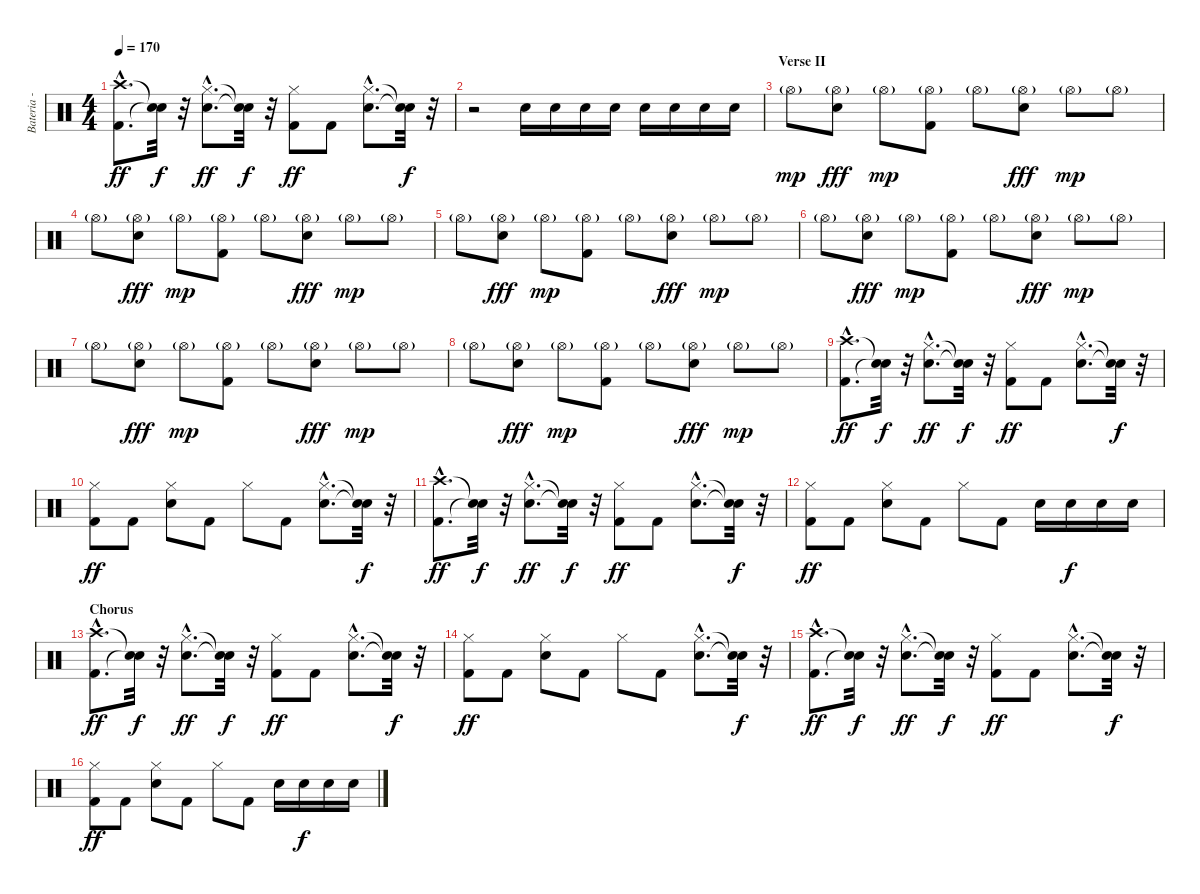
\track ("Bateria - Larzon" "Bateria - ") {instrument percussion}
\staff {score}
\articulation defaults
\ts (4 4)
\tempo 170
\clef neutral
\ks c
("Kick (hit) 2"{hac} "Crash high (hit)"{hac}).8{d dy ff} ("Snare (hit)"{t} "Snare (hit)"{t}).32{dy f} r.32 ("Electric Snare (hit)"{hac} "Hi-Hat (closed)"{hac}).8{d dy ff} ("Snare (hit)"{t} "Snare (hit)"{t}).32{dy f} r.32 ("Kick (hit) 2" "Hi-Hat (closed)").8{dy ff} "Kick (hit) 2".8 ("Electric Snare (hit)"{hac} "Hi-Hat (closed)"{hac}).8{d} ("Snare (hit)"{t} "Snare (hit)"{t}).32{dy f} r.32 |
r.2 "Snare (hit) 2".16 "Snare (hit) 2".16 "Snare (hit) 2".16 "Snare (hit) 2".16 "Snare (hit) 2".16 "Snare (hit) 2".16 "Snare (hit) 2".16 "Snare (hit) 2".16 |
\section ("" "Verse II")
"Hi-Hat (open)"{g}.8{dy mp} ("Hi-Hat (open)"{g} "Snare (hit) 2").8{dy fff} "Hi-Hat (open)"{g}.8{dy mp} ("Kick (hit) 2" "Hi-Hat (open)"{g}).8 "Hi-Hat (open)"{g}.8 ("Hi-Hat (open)"{g} "Snare (hit) 2").8{dy fff} "Hi-Hat (open)"{g}.8{dy mp} "Hi-Hat (open)"{g}.8 |
"Hi-Hat (open)"{g}.8 ("Hi-Hat (open)"{g} "Snare (hit) 2").8{dy fff} "Hi-Hat (open)"{g}.8{dy mp} ("Kick (hit) 2" "Hi-Hat (open)"{g}).8 "Hi-Hat (open)"{g}.8 ("Hi-Hat (open)"{g} "Snare (hit) 2").8{dy fff} "Hi-Hat (open)"{g}.8{dy mp} "Hi-Hat (open)"{g}.8 |
"Hi-Hat (open)"{g}.8 ("Hi-Hat (open)"{g} "Snare (hit) 2").8{dy fff} "Hi-Hat (open)"{g}.8{dy mp} ("Kick (hit) 2" "Hi-Hat (open)"{g}).8 "Hi-Hat (open)"{g}.8 ("Hi-Hat (open)"{g} "Snare (hit) 2").8{dy fff} "Hi-Hat (open)"{g}.8{dy mp} "Hi-Hat (open)"{g}.8 |
"Hi-Hat (open)"{g}.8 ("Hi-Hat (open)"{g} "Snare (hit) 2").8{dy fff} "Hi-Hat (open)"{g}.8{dy mp} ("Kick (hit) 2" "Hi-Hat (open)"{g}).8 "Hi-Hat (open)"{g}.8 ("Hi-Hat (open)"{g} "Snare (hit) 2").8{dy fff} "Hi-Hat (open)"{g}.8{dy mp} "Hi-Hat (open)"{g}.8 |
"Hi-Hat (open)"{g}.8 ("Hi-Hat (open)"{g} "Snare (hit) 2").8{dy fff} "Hi-Hat (open)"{g}.8{dy mp} ("Kick (hit) 2" "Hi-Hat (open)"{g}).8 "Hi-Hat (open)"{g}.8 ("Hi-Hat (open)"{g} "Snare (hit) 2").8{dy fff} "Hi-Hat (open)"{g}.8{dy mp} "Hi-Hat (open)"{g}.8 |
"Hi-Hat (open)"{g}.8 ("Hi-Hat (open)"{g} "Snare (hit) 2").8{dy fff} "Hi-Hat (open)"{g}.8{dy mp} ("Kick (hit) 2" "Hi-Hat (open)"{g}).8 "Hi-Hat (open)"{g}.8 ("Hi-Hat (open)"{g} "Snare (hit) 2").8{dy fff} "Hi-Hat (open)"{g}.8{dy mp} "Hi-Hat (open)"{g}.8 |
("Kick (hit) 2"{hac} "Crash high (hit)"{hac}).8{d dy ff} ("Snare (hit)"{t} "Snare (hit)"{t}).32{dy f} r.32 ("Electric Snare (hit)"{hac} "Hi-Hat (closed)"{hac}).8{d dy ff} ("Snare (hit)"{t} "Snare (hit)"{t}).32{dy f} r.32 ("Kick (hit) 2" "Hi-Hat (closed)").8{dy ff} "Kick (hit) 2".8 ("Electric Snare (hit)"{hac} "Hi-Hat (closed)"{hac}).8{d} ("Snare (hit)"{t} "Snare (hit)"{t}).32{dy f} r.32 |
("Kick (hit) 2" "Hi-Hat (closed)").8{dy ff} "Kick (hit) 2".8 ("Electric Snare (hit)" "Hi-Hat (closed)").8 "Kick (hit) 2".8 "Hi-Hat (closed)".8 "Kick (hit) 2".8 ("Electric Snare (hit)"{hac} "Hi-Hat (closed)"{hac}).8{d} ("Snare (hit)"{t} "Snare (hit)"{t}).32{dy f} r.32 |
("Kick (hit) 2"{hac} "Crash high (hit)"{hac}).8{d dy ff} ("Snare (hit)"{t} "Snare (hit)"{t}).32{dy f} r.32 ("Electric Snare (hit)"{hac} "Hi-Hat (closed)"{hac}).8{d dy ff} ("Snare (hit)"{t} "Snare (hit)"{t}).32{dy f} r.32 ("Kick (hit) 2" "Hi-Hat (closed)").8{dy ff} "Kick (hit) 2".8 ("Electric Snare (hit)"{hac} "Hi-Hat (closed)"{hac}).8{d} ("Snare (hit)"{t} "Snare (hit)"{t}).32{dy f} r.32 |
("Kick (hit) 2" "Hi-Hat (closed)").8{dy ff} "Kick (hit) 2".8 ("Electric Snare (hit)" "Hi-Hat (closed)").8 "Kick (hit) 2".8 "Hi-Hat (closed)".8 "Kick (hit) 2".8 "Electric Snare (hit)".16 "Electric Snare (hit)".16{dy f} "Electric Snare (hit)".16 "Electric Snare (hit)".16 |
\section ("" "Chorus")
("Kick (hit) 2"{hac} "Crash high (hit)"{hac}).8{d dy ff} ("Snare (hit)"{t} "Snare (hit)"{t}).32{dy f} r.32 ("Electric Snare (hit)"{hac} "Hi-Hat (closed)"{hac}).8{d dy ff} ("Snare (hit)"{t} "Snare (hit)"{t}).32{dy f} r.32 ("Kick (hit) 2" "Hi-Hat (closed)").8{dy ff} "Kick (hit) 2".8 ("Electric Snare (hit)"{hac} "Hi-Hat (closed)"{hac}).8{d} ("Snare (hit)"{t} "Snare (hit)"{t}).32{dy f} r.32 |
("Kick (hit) 2" "Hi-Hat (closed)").8{dy ff} "Kick (hit) 2".8 ("Electric Snare (hit)" "Hi-Hat (closed)").8 "Kick (hit) 2".8 "Hi-Hat (closed)".8 "Kick (hit) 2".8 ("Electric Snare (hit)"{hac} "Hi-Hat (closed)"{hac}).8{d} ("Snare (hit)"{t} "Snare (hit)"{t}).32{dy f} r.32 |
("Kick (hit) 2"{hac} "Crash high (hit)"{hac}).8{d dy ff} ("Snare (hit)"{t} "Snare (hit)"{t}).32{dy f} r.32 ("Electric Snare (hit)"{hac} "Hi-Hat (closed)"{hac}).8{d dy ff} ("Snare (hit)"{t} "Snare (hit)"{t}).32{dy f} r.32 ("Kick (hit) 2" "Hi-Hat (closed)").8{dy ff} "Kick (hit) 2".8 ("Electric Snare (hit)"{hac} "Hi-Hat (closed)"{hac}).8{d} ("Snare (hit)"{t} "Snare (hit)"{t}).32{dy f} r.32 |
("Kick (hit) 2" "Hi-Hat (closed)").8{dy ff} "Kick (hit) 2".8 ("Electric Snare (hit)" "Hi-Hat (closed)").8 "Kick (hit) 2".8 "Hi-Hat (closed)".8 "Kick (hit) 2".8 "Electric Snare (hit)".16 "Electric Snare (hit)".16{dy f} "Electric Snare (hit)".16 "Electric Snare (hit)".16
